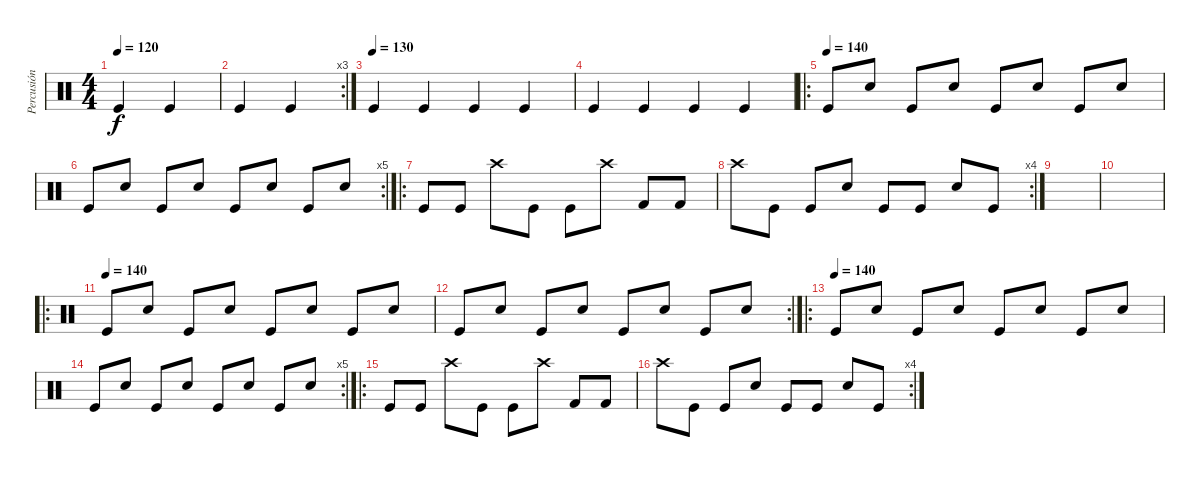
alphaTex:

\track ("Percusión" "Percusión") {instrument percussion}
\staff {score}
\articulation defaults
\ts (4 4)
\tempo 120
\clef neutral
\ks c "Kick (hit)".4{dy f} "Kick (hit)".4
|
\rc 3 "Kick (hit)".4 "Kick (hit)".4
|
\tempo (130)
"Kick (hit)".4 "Kick (hit)".4 "Kick (hit)".4 "Kick (hit)".4 |
"Kick (hit)".4 "Kick (hit)".4 "Kick (hit)".4 "Kick (hit)".4 |
\ro
\tempo (140)
"Kick (hit)".8 "Snare (hit) 2".8 "Kick (hit)".8 "Snare (hit) 2".8 "Kick (hit)".8 "Snare (hit) 2".8 "Kick (hit)".8 "Snare (hit) 2".8 |
\rc 5 "Kick (hit)".8 "Snare (hit) 2".8 "Kick (hit)".8 "Snare (hit) 2".8 "Kick (hit)".8 "Snare (hit) 2".8 "Kick (hit)".8 "Snare (hit) 2".8
|
\ro "Kick (hit)".8 "Kick (hit)".8 "Crash high (hit)".8 "Kick (hit)".8 "Kick (hit)".8 "Crash high (hit)".8 "Kick (hit) 2".8 "Kick (hit) 2".8
|
\rc 4 "Crash high (hit)".8 "Kick (hit)".8 "Kick (hit)".8 "Snare (hit) 2".8 "Kick (hit)".8 "Kick (hit)".8 "Snare (hit) 2".8 "Kick (hit)".8
|
|
|
\ro
\tempo (140)
"Kick (hit)".8 "Snare (hit) 2".8 "Kick (hit)".8 "Snare (hit) 2".8 "Kick (hit)".8 "Snare (hit) 2".8 "Kick (hit)".8 "Snare (hit) 2".8 |
\rc 2 "Kick (hit)".8 "Snare (hit) 2".8 "Kick (hit)".8 "Snare (hit) 2".8 "Kick (hit)".8 "Snare (hit) 2".8 "Kick (hit)".8 "Snare (hit) 2".8
|
\ro
\tempo (140)
"Kick (hit)".8 "Snare (hit) 2".8 "Kick (hit)".8 "Snare (hit) 2".8 "Kick (hit)".8 "Snare (hit) 2".8 "Kick (hit)".8 "Snare (hit) 2".8 |
\rc 5 "Kick (hit)".8 "Snare (hit) 2".8 "Kick (hit)".8 "Snare (hit) 2".8 "Kick (hit)".8 "Snare (hit) 2".8 "Kick (hit)".8 "Snare (hit) 2".8
|
\ro "Kick (hit)".8 "Kick (hit)".8 "Crash high (hit)".8 "Kick (hit)".8 "Kick (hit)".8 "Crash high (hit)".8 "Kick (hit) 2".8 "Kick (hit) 2".8
|
\rc 4 "Crash high (hit)".8 "Kick (hit)".8 "Kick (hit)".8 "Snare (hit) 2".8 "Kick (hit)".8 "Kick (hit)".8 "Snare (hit) 2".8 "Kick (hit)".8
